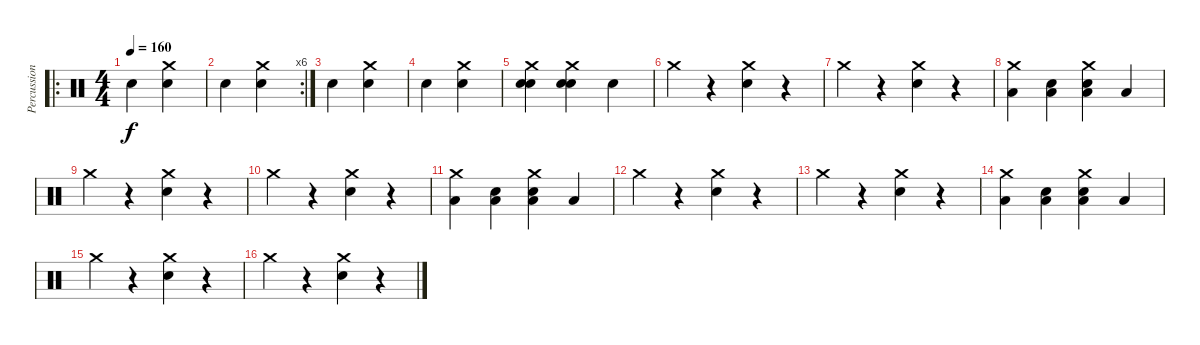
\track ("Percussion" "Percussion") {instrument percussion}
\staff {score}
\articulation defaults
\ro
\ts (4 4)
\tempo 160
\clef neutral
\ks c "Electric Snare (hit)".4{dy f}
("Crash medium (hit)" "Snare (hit) 2").4 |
\rc 6 "Electric Snare (hit)".4
("Crash medium (hit)" "Snare (hit) 2").4 |
"Electric Snare (hit)".4 ("Crash medium (hit)" "Snare (hit) 2").4 |
"Electric Snare (hit)".4 ("Crash medium (hit)" "Snare (hit) 2").4 |
("Crash medium (hit)" "Snare (hit) 2" "Electric Snare (hit)").4 ("Crash medium (hit)" "Snare (hit) 2" "Electric Snare (hit)").4 "Electric Snare (hit)".4 |
"Crash medium (hit)".4 r.4 ("Crash medium (hit)" "Electric Snare (hit)").4 r.4 |
"Crash medium (hit)".4 r.4 ("Crash medium (hit)" "Electric Snare (hit)").4 r.4 |
("Crash medium (hit)" "Low Floor Tom (hit)").4 ("Low Floor Tom (hit)" "Electric Snare (hit)").4 ("Crash medium (hit)" "Low Floor Tom (hit)" "Electric Snare (hit)").4 "Low Floor Tom (hit)".4 |
"Crash medium (hit)".4 r.4 ("Crash medium (hit)" "Electric Snare (hit)").4 r.4 |
"Crash medium (hit)".4 r.4 ("Crash medium (hit)" "Electric Snare (hit)").4 r.4 |
("Crash medium (hit)" "Low Floor Tom (hit)").4 ("Low Floor Tom (hit)" "Electric Snare (hit)").4 ("Crash medium (hit)" "Low Floor Tom (hit)" "Electric Snare (hit)").4 "Low Floor Tom (hit)".4 |
"Crash medium (hit)".4 r.4 ("Crash medium (hit)" "Electric Snare (hit)").4 r.4 |
"Crash medium (hit)".4 r.4 ("Crash medium (hit)" "Electric Snare (hit)").4 r.4 |
("Crash medium (hit)" "Low Floor Tom (hit)").4 ("Low Floor Tom (hit)" "Electric Snare (hit)").4 ("Crash medium (hit)" "Low Floor Tom (hit)" "Electric Snare (hit)").4 "Low Floor Tom (hit)".4 |
"Crash medium (hit)".4 r.4 ("Crash medium (hit)" "Electric Snare (hit)").4 r.4 |
"Crash medium (hit)".4 r.4 ("Crash medium (hit)" "Electric Snare (hit)").4 r.4
